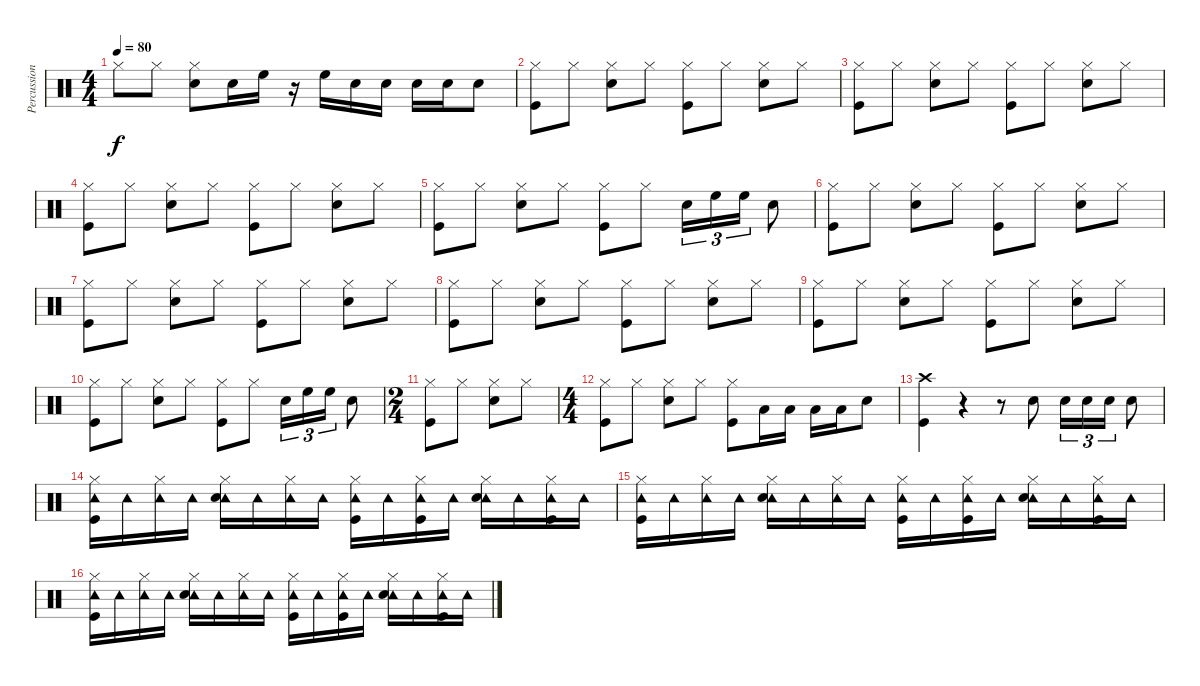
\track ("Percussion" "Percussion") {instrument percussion}
\staff {score}
\articulation defaults
\ts (4 4)
\tempo 80
\clef neutral
\ks c "Hi-Hat (closed)".8{dy f} "Hi-Hat (closed)".8
("Hi-Hat (closed)" "Snare (hit) 2").8 "Snare (hit) 2".16 "High Floor Tom (hit)".16 r.16 "High Floor Tom (hit)".16 "Snare (hit) 2".16 "Snare (hit) 2".16 "Snare (hit) 2".16 "Snare (hit) 2".16 "Snare (hit) 2".8 |
("Hi-Hat (closed)" "Kick (hit)").8 "Hi-Hat (closed)".8 ("Hi-Hat (closed)" "Snare (hit) 2").8 "Hi-Hat (closed)".8 ("Hi-Hat (closed)" "Kick (hit)").8 "Hi-Hat (closed)".8 ("Hi-Hat (closed)" "Snare (hit) 2").8 "Hi-Hat (closed)".8 |
("Hi-Hat (closed)" "Kick (hit)").8 "Hi-Hat (closed)".8 ("Hi-Hat (closed)" "Snare (hit) 2").8 "Hi-Hat (closed)".8 ("Hi-Hat (closed)" "Kick (hit)").8 "Hi-Hat (closed)".8 ("Hi-Hat (closed)" "Snare (hit) 2").8 "Hi-Hat (closed)".8 |
("Hi-Hat (closed)" "Kick (hit)").8 "Hi-Hat (closed)".8 ("Hi-Hat (closed)" "Snare (hit) 2").8 "Hi-Hat (closed)".8 ("Hi-Hat (closed)" "Kick (hit)").8 "Hi-Hat (closed)".8 ("Hi-Hat (closed)" "Snare (hit) 2").8 "Hi-Hat (closed)".8 |
("Hi-Hat (closed)" "Kick (hit)").8 "Hi-Hat (closed)".8 ("Hi-Hat (closed)" "Snare (hit) 2").8 "Hi-Hat (closed)".8 ("Hi-Hat (closed)" "Kick (hit)").8 "Hi-Hat (closed)".8 "Snare (hit) 2".16{tu (3 2)} "High Floor Tom (hit)".16{tu (3 2)} "High Floor Tom (hit)".16{tu (3 2)} "Snare (hit) 2".8 |
("Hi-Hat (closed)" "Kick (hit)").8 "Hi-Hat (closed)".8 ("Hi-Hat (closed)" "Snare (hit) 2").8 "Hi-Hat (closed)".8 ("Hi-Hat (closed)" "Kick (hit)").8 "Hi-Hat (closed)".8 ("Hi-Hat (closed)" "Snare (hit) 2").8 "Hi-Hat (closed)".8 |
("Hi-Hat (closed)" "Kick (hit)").8 "Hi-Hat (closed)".8 ("Hi-Hat (closed)" "Snare (hit) 2").8 "Hi-Hat (closed)".8 ("Hi-Hat (closed)" "Kick (hit)").8 "Hi-Hat (closed)".8 ("Hi-Hat (closed)" "Snare (hit) 2").8 "Hi-Hat (closed)".8 |
("Hi-Hat (closed)" "Kick (hit)").8 "Hi-Hat (closed)".8 ("Hi-Hat (closed)" "Snare (hit) 2").8 "Hi-Hat (closed)".8 ("Hi-Hat (closed)" "Kick (hit)").8 "Hi-Hat (closed)".8 ("Hi-Hat (closed)" "Snare (hit) 2").8 "Hi-Hat (closed)".8 |
("Hi-Hat (closed)" "Kick (hit)").8 "Hi-Hat (closed)".8 ("Hi-Hat (closed)" "Snare (hit) 2").8 "Hi-Hat (closed)".8 ("Hi-Hat (closed)" "Kick (hit)").8 "Hi-Hat (closed)".8 ("Hi-Hat (closed)" "Snare (hit) 2").8 "Hi-Hat (closed)".8 |
("Hi-Hat (closed)" "Kick (hit)").8 "Hi-Hat (closed)".8 ("Hi-Hat (closed)" "Snare (hit) 2").8 "Hi-Hat (closed)".8 ("Hi-Hat (closed)" "Kick (hit)").8 "Hi-Hat (closed)".8 "Snare (hit) 2".16{tu (3 2)} "High Floor Tom (hit)".16{tu (3 2)} "High Floor Tom (hit)".16{tu (3 2)} "Snare (hit) 2".8 |
\ts (2 4)
("Hi-Hat (closed)" "Kick (hit)").8 "Hi-Hat (closed)".8 ("Hi-Hat (closed)" "Snare (hit) 2").8 "Hi-Hat (closed)".8 |
\ts (4 4)
("Hi-Hat (closed)" "Kick (hit)").8 "Hi-Hat (closed)".8 ("Hi-Hat (closed)" "Snare (hit) 2").8 "Hi-Hat (closed)".8 ("Hi-Hat (closed)" "Kick (hit)").8 "Low Tom (hit)".16 "Low Tom (hit)".16 "Low Tom (hit)".16 "Low Tom (hit)".16 "Snare (hit) 2".8 |
("Crash high (hit)" "Kick (hit)").4 r.4 r.8 "Snare (hit) 2".8 "Snare (hit) 2".16{tu (3 2)} "Snare (hit) 2".16{tu (3 2)} "Snare (hit) 2".16{tu (3 2)} "Snare (hit) 2".8 |
("Hi-Hat (closed)" "Tambourine (hit)" "Kick (hit)").16 "Tambourine (hit)".16 ("Hi-Hat (closed)" "Tambourine (hit)").16 "Tambourine (hit)".16 ("Hi-Hat (closed)" "Tambourine (hit)" "Snare (hit) 2").16 "Tambourine (hit)".16 ("Hi-Hat (closed)" "Tambourine (hit)").16 "Tambourine (hit)".16 ("Hi-Hat (closed)" "Tambourine (hit)" "Kick (hit)").16 "Tambourine (hit)".16 ("Hi-Hat (closed)" "Tambourine (hit)" "Kick (hit)").16 "Tambourine (hit)".16 ("Hi-Hat (closed)" "Tambourine (hit)" "Snare (hit) 2").16 "Tambourine (hit)".16 ("Hi-Hat (closed)" "Tambourine (hit)" "Kick (hit)").16 "Tambourine (hit)".16 |
("Hi-Hat (closed)" "Tambourine (hit)" "Kick (hit)").16 "Tambourine (hit)".16 ("Hi-Hat (closed)" "Tambourine (hit)").16 "Tambourine (hit)".16 ("Hi-Hat (closed)" "Tambourine (hit)" "Snare (hit) 2").16 "Tambourine (hit)".16 ("Hi-Hat (closed)" "Tambourine (hit)").16 "Tambourine (hit)".16 ("Hi-Hat (closed)" "Tambourine (hit)" "Kick (hit)").16 "Tambourine (hit)".16 ("Hi-Hat (closed)" "Tambourine (hit)" "Kick (hit)").16 "Tambourine (hit)".16 ("Hi-Hat (closed)" "Tambourine (hit)" "Snare (hit) 2").16 "Tambourine (hit)".16 ("Hi-Hat (closed)" "Tambourine (hit)" "Kick (hit)").16 "Tambourine (hit)".16 |
("Hi-Hat (closed)" "Tambourine (hit)" "Kick (hit)").16 "Tambourine (hit)".16 ("Hi-Hat (closed)" "Tambourine (hit)").16 "Tambourine (hit)".16 ("Hi-Hat (closed)" "Tambourine (hit)" "Snare (hit) 2").16 "Tambourine (hit)".16 ("Hi-Hat (closed)" "Tambourine (hit)").16 "Tambourine (hit)".16 ("Hi-Hat (closed)" "Tambourine (hit)" "Kick (hit)").16 "Tambourine (hit)".16 ("Hi-Hat (closed)" "Tambourine (hit)" "Kick (hit)").16 "Tambourine (hit)".16 ("Hi-Hat (closed)" "Tambourine (hit)" "Snare (hit) 2").16 "Tambourine (hit)".16 ("Hi-Hat (closed)" "Tambourine (hit)" "Kick (hit)").16 "Tambourine (hit)".16
